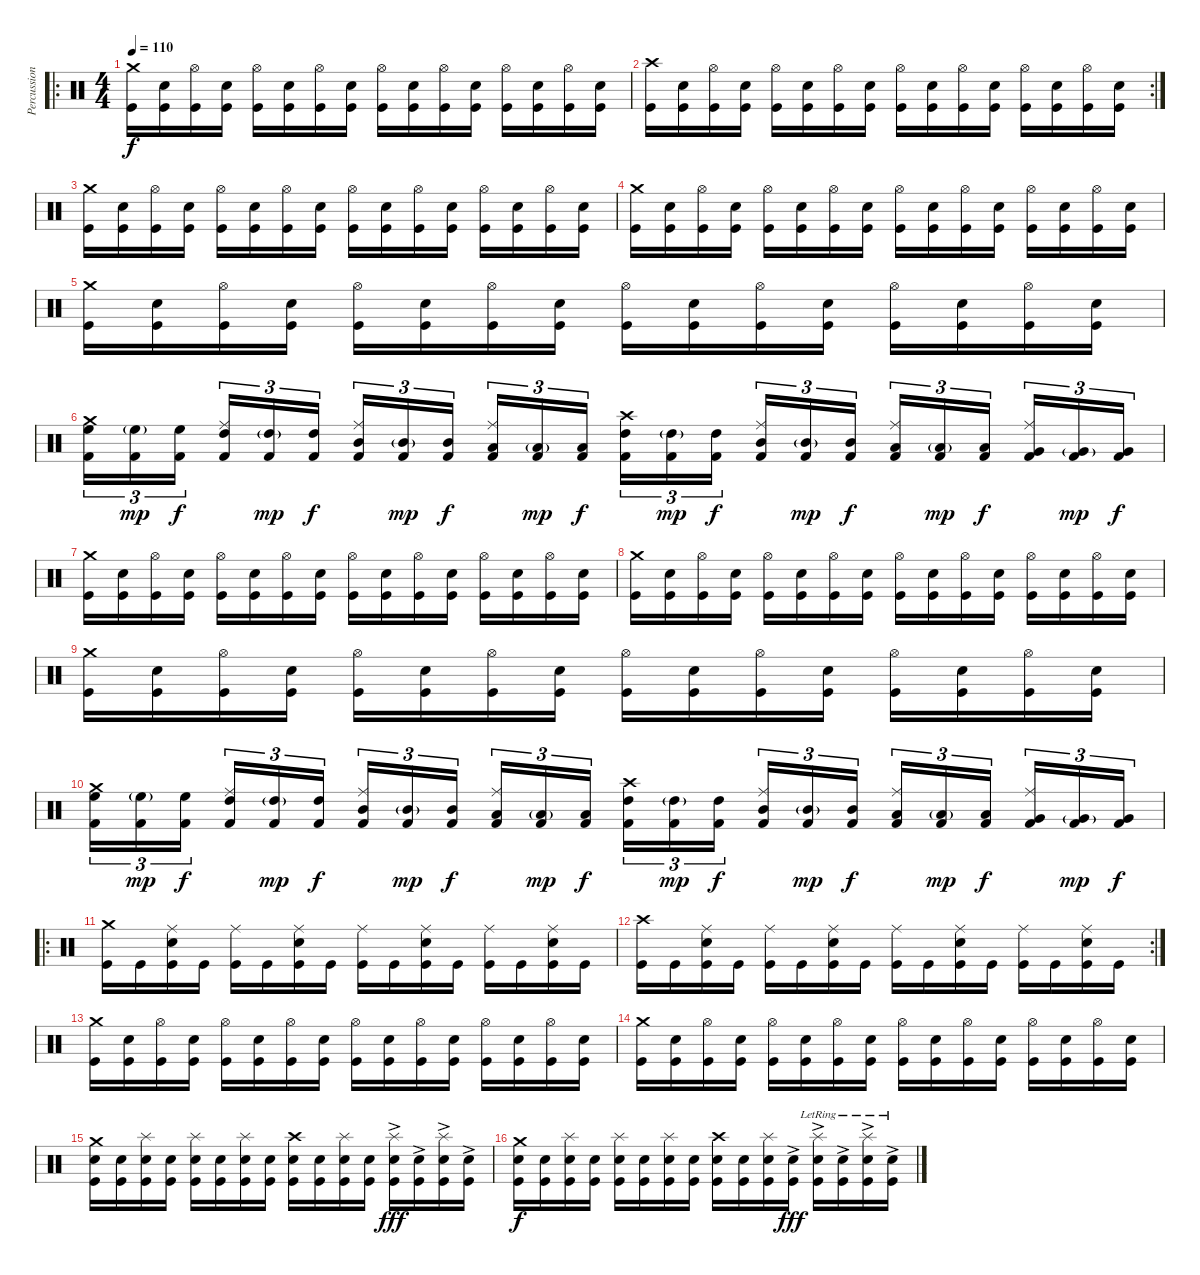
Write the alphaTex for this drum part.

\track ("Percussion" "Percussion") {instrument percussion}
\staff {score}
\articulation defaults
\ro
\ts (4 4)
\tempo 110
\clef neutral
\ks c
("Crash medium (hit)" "Kick (hit)").16{dy f} ("Electric Snare (hit)" "Kick (hit)").16 ("Hi-Hat (open)" "Kick (hit)").16 ("Electric Snare (hit)" "Kick (hit)").16 ("Hi-Hat (open)" "Kick (hit)").16 ("Electric Snare (hit)" "Kick (hit)").16 ("Hi-Hat (open)" "Kick (hit)").16 ("Electric Snare (hit)" "Kick (hit)").16 ("Hi-Hat (open)" "Kick (hit)").16 ("Electric Snare (hit)" "Kick (hit)").16 ("Hi-Hat (open)" "Kick (hit)").16 ("Electric Snare (hit)" "Kick (hit)").16 ("Hi-Hat (open)" "Kick (hit)").16 ("Electric Snare (hit)" "Kick (hit)").16 ("Hi-Hat (open)" "Kick (hit)").16 ("Electric Snare (hit)" "Kick (hit)").16 |
\rc 2
("Crash high (hit)" "Kick (hit)").16 ("Electric Snare (hit)" "Kick (hit)").16 ("Hi-Hat (open)" "Kick (hit)").16 ("Electric Snare (hit)" "Kick (hit)").16 ("Hi-Hat (open)" "Kick (hit)").16 ("Electric Snare (hit)" "Kick (hit)").16 ("Hi-Hat (open)" "Kick (hit)").16 ("Electric Snare (hit)" "Kick (hit)").16 ("Hi-Hat (open)" "Kick (hit)").16 ("Electric Snare (hit)" "Kick (hit)").16 ("Hi-Hat (open)" "Kick (hit)").16 ("Electric Snare (hit)" "Kick (hit)").16 ("Hi-Hat (open)" "Kick (hit)").16 ("Electric Snare (hit)" "Kick (hit)").16 ("Hi-Hat (open)" "Kick (hit)").16 ("Electric Snare (hit)" "Kick (hit)").16 |
("Crash medium (hit)" "Kick (hit)").16 ("Electric Snare (hit)" "Kick (hit)").16 ("Hi-Hat (open)" "Kick (hit)").16 ("Electric Snare (hit)" "Kick (hit)").16 ("Hi-Hat (open)" "Kick (hit)").16 ("Electric Snare (hit)" "Kick (hit)").16 ("Hi-Hat (open)" "Kick (hit)").16 ("Electric Snare (hit)" "Kick (hit)").16 ("Hi-Hat (open)" "Kick (hit)").16 ("Electric Snare (hit)" "Kick (hit)").16 ("Hi-Hat (open)" "Kick (hit)").16 ("Electric Snare (hit)" "Kick (hit)").16 ("Hi-Hat (open)" "Kick (hit)").16 ("Electric Snare (hit)" "Kick (hit)").16 ("Hi-Hat (open)" "Kick (hit)").16 ("Electric Snare (hit)" "Kick (hit)").16 |
("Crash medium (hit)" "Kick (hit)").16 ("Electric Snare (hit)" "Kick (hit)").16 ("Hi-Hat (open)" "Kick (hit)").16 ("Electric Snare (hit)" "Kick (hit)").16 ("Hi-Hat (open)" "Kick (hit)").16 ("Electric Snare (hit)" "Kick (hit)").16 ("Hi-Hat (open)" "Kick (hit)").16 ("Electric Snare (hit)" "Kick (hit)").16 ("Hi-Hat (open)" "Kick (hit)").16 ("Electric Snare (hit)" "Kick (hit)").16 ("Hi-Hat (open)" "Kick (hit)").16 ("Electric Snare (hit)" "Kick (hit)").16 ("Hi-Hat (open)" "Kick (hit)").16 ("Electric Snare (hit)" "Kick (hit)").16 ("Hi-Hat (open)" "Kick (hit)").16 ("Electric Snare (hit)" "Kick (hit)").16 |
("Crash medium (hit)" "Kick (hit)").16 ("Electric Snare (hit)" "Kick (hit)").16 ("Hi-Hat (open)" "Kick (hit)").16 ("Electric Snare (hit)" "Kick (hit)").16 ("Hi-Hat (open)" "Kick (hit)").16 ("Electric Snare (hit)" "Kick (hit)").16 ("Hi-Hat (open)" "Kick (hit)").16 ("Electric Snare (hit)" "Kick (hit)").16 ("Hi-Hat (open)" "Kick (hit)").16 ("Electric Snare (hit)" "Kick (hit)").16 ("Hi-Hat (open)" "Kick (hit)").16 ("Electric Snare (hit)" "Kick (hit)").16 ("Hi-Hat (open)" "Kick (hit)").16 ("Electric Snare (hit)" "Kick (hit)").16 ("Hi-Hat (open)" "Kick (hit)").16 ("Electric Snare (hit)" "Kick (hit)").16 |
("Crash medium (hit)" "High Floor Tom (hit)" "Kick (hit) 2").16{tu (3 2)} ("High Floor Tom (hit)"{g} "Kick (hit) 2").16{tu (3 2) dy mp} ("High Floor Tom (hit)" "Kick (hit) 2").16{tu (3 2) dy f} ("Ride (middle)" "High Tom (hit)" "Kick (hit) 2").16{tu (3 2)} ("High Tom (hit)"{g} "Kick (hit) 2").16{tu (3 2) dy mp} ("High Tom (hit)" "Kick (hit) 2").16{tu (3 2) dy f} ("Ride (middle)" "Mid Tom (hit)" "Kick (hit) 2").16{tu (3 2)} ("Mid Tom (hit)"{g} "Kick (hit) 2").16{tu (3 2) dy mp} ("Mid Tom (hit)" "Kick (hit) 2").16{tu (3 2) dy f} ("Ride (middle)" "Low Tom (hit)" "Kick (hit) 2").16{tu (3 2)} ("Low Tom (hit)"{g} "Kick (hit) 2").16{tu (3 2) dy mp} ("Low Tom (hit)" "Kick (hit) 2").16{tu (3 2) dy f} ("Crash high (hit)" "High Tom (hit)" "Kick (hit) 2").16{tu (3 2)} ("High Tom (hit)"{g} "Kick (hit) 2").16{tu (3 2) dy mp} ("High Tom (hit)" "Kick (hit) 2").16{tu (3 2) dy f} ("Ride (middle)" "Mid Tom (hit)" "Kick (hit) 2").16{tu (3 2)} ("Mid Tom (hit)"{g} "Kick (hit) 2").16{tu (3 2) dy mp} ("Mid Tom (hit)" "Kick (hit) 2").16{tu (3 2) dy f} ("Ride (middle)" "Low Tom (hit)" "Kick (hit) 2").16{tu (3 2)} ("Low Tom (hit)"{g} "Kick (hit) 2").16{tu (3 2) dy mp} ("Low Tom (hit)" "Kick (hit) 2").16{tu (3 2) dy f} ("Ride (middle)" "Very Low Tom (hit)" "Kick (hit) 2").16{tu (3 2)} ("Very Low Tom (hit)"{g} "Kick (hit) 2").16{tu (3 2) dy mp} ("Very Low Tom (hit)" "Kick (hit) 2").16{tu (3 2) dy f} |
("Crash medium (hit)" "Kick (hit)").16 ("Electric Snare (hit)" "Kick (hit)").16 ("Hi-Hat (open)" "Kick (hit)").16 ("Electric Snare (hit)" "Kick (hit)").16 ("Hi-Hat (open)" "Kick (hit)").16 ("Electric Snare (hit)" "Kick (hit)").16 ("Hi-Hat (open)" "Kick (hit)").16 ("Electric Snare (hit)" "Kick (hit)").16 ("Hi-Hat (open)" "Kick (hit)").16 ("Electric Snare (hit)" "Kick (hit)").16 ("Hi-Hat (open)" "Kick (hit)").16 ("Electric Snare (hit)" "Kick (hit)").16 ("Hi-Hat (open)" "Kick (hit)").16 ("Electric Snare (hit)" "Kick (hit)").16 ("Hi-Hat (open)" "Kick (hit)").16 ("Electric Snare (hit)" "Kick (hit)").16 |
("Crash medium (hit)" "Kick (hit)").16 ("Electric Snare (hit)" "Kick (hit)").16 ("Hi-Hat (open)" "Kick (hit)").16 ("Electric Snare (hit)" "Kick (hit)").16 ("Hi-Hat (open)" "Kick (hit)").16 ("Electric Snare (hit)" "Kick (hit)").16 ("Hi-Hat (open)" "Kick (hit)").16 ("Electric Snare (hit)" "Kick (hit)").16 ("Hi-Hat (open)" "Kick (hit)").16 ("Electric Snare (hit)" "Kick (hit)").16 ("Hi-Hat (open)" "Kick (hit)").16 ("Electric Snare (hit)" "Kick (hit)").16 ("Hi-Hat (open)" "Kick (hit)").16 ("Electric Snare (hit)" "Kick (hit)").16 ("Hi-Hat (open)" "Kick (hit)").16 ("Electric Snare (hit)" "Kick (hit)").16 |
("Crash medium (hit)" "Kick (hit)").16 ("Electric Snare (hit)" "Kick (hit)").16 ("Hi-Hat (open)" "Kick (hit)").16 ("Electric Snare (hit)" "Kick (hit)").16 ("Hi-Hat (open)" "Kick (hit)").16 ("Electric Snare (hit)" "Kick (hit)").16 ("Hi-Hat (open)" "Kick (hit)").16 ("Electric Snare (hit)" "Kick (hit)").16 ("Hi-Hat (open)" "Kick (hit)").16 ("Electric Snare (hit)" "Kick (hit)").16 ("Hi-Hat (open)" "Kick (hit)").16 ("Electric Snare (hit)" "Kick (hit)").16 ("Hi-Hat (open)" "Kick (hit)").16 ("Electric Snare (hit)" "Kick (hit)").16 ("Hi-Hat (open)" "Kick (hit)").16 ("Electric Snare (hit)" "Kick (hit)").16 |
("Crash medium (hit)" "High Floor Tom (hit)" "Kick (hit) 2").16{tu (3 2)} ("High Floor Tom (hit)"{g} "Kick (hit) 2").16{tu (3 2) dy mp} ("High Floor Tom (hit)" "Kick (hit) 2").16{tu (3 2) dy f} ("Ride (middle)" "High Tom (hit)" "Kick (hit) 2").16{tu (3 2)} ("High Tom (hit)"{g} "Kick (hit) 2").16{tu (3 2) dy mp} ("High Tom (hit)" "Kick (hit) 2").16{tu (3 2) dy f} ("Ride (middle)" "Mid Tom (hit)" "Kick (hit) 2").16{tu (3 2)} ("Mid Tom (hit)"{g} "Kick (hit) 2").16{tu (3 2) dy mp} ("Mid Tom (hit)" "Kick (hit) 2").16{tu (3 2) dy f} ("Ride (middle)" "Low Tom (hit)" "Kick (hit) 2").16{tu (3 2)} ("Low Tom (hit)"{g} "Kick (hit) 2").16{tu (3 2) dy mp} ("Low Tom (hit)" "Kick (hit) 2").16{tu (3 2) dy f} ("Crash high (hit)" "High Tom (hit)" "Kick (hit) 2").16{tu (3 2)} ("High Tom (hit)"{g} "Kick (hit) 2").16{tu (3 2) dy mp} ("High Tom (hit)" "Kick (hit) 2").16{tu (3 2) dy f} ("Ride (middle)" "Mid Tom (hit)" "Kick (hit) 2").16{tu (3 2)} ("Mid Tom (hit)"{g} "Kick (hit) 2").16{tu (3 2) dy mp} ("Mid Tom (hit)" "Kick (hit) 2").16{tu (3 2) dy f} ("Ride (middle)" "Low Tom (hit)" "Kick (hit) 2").16{tu (3 2)} ("Low Tom (hit)"{g} "Kick (hit) 2").16{tu (3 2) dy mp} ("Low Tom (hit)" "Kick (hit) 2").16{tu (3 2) dy f} ("Ride (middle)" "Very Low Tom (hit)" "Kick (hit) 2").16{tu (3 2)} ("Very Low Tom (hit)"{g} "Kick (hit) 2").16{tu (3 2) dy mp} ("Very Low Tom (hit)" "Kick (hit) 2").16{tu (3 2) dy f} |
\ro
("Crash medium (hit)" "Kick (hit)").16 "Kick (hit)".16 ("Ride (middle)" "Electric Snare (hit)" "Kick (hit)").16 "Kick (hit)".16 ("Ride (middle)" "Kick (hit)").16 "Kick (hit)".16 ("Ride (middle)" "Electric Snare (hit)" "Kick (hit)").16 "Kick (hit)".16 ("Ride (middle)" "Kick (hit)").16 "Kick (hit)".16 ("Ride (middle)" "Electric Snare (hit)" "Kick (hit)").16 "Kick (hit)".16 ("Ride (middle)" "Kick (hit)").16 "Kick (hit)".16 ("Ride (middle)" "Electric Snare (hit)" "Kick (hit)").16 "Kick (hit)".16 |
\rc 2
("Crash high (hit)" "Kick (hit)").16 "Kick (hit)".16 ("Ride (middle)" "Electric Snare (hit)" "Kick (hit)").16 "Kick (hit)".16 ("Ride (middle)" "Kick (hit)").16 "Kick (hit)".16 ("Ride (middle)" "Electric Snare (hit)" "Kick (hit)").16 "Kick (hit)".16 ("Ride (middle)" "Kick (hit)").16 "Kick (hit)".16 ("Ride (middle)" "Electric Snare (hit)" "Kick (hit)").16 "Kick (hit)".16 ("Ride (middle)" "Kick (hit)").16 "Kick (hit)".16 ("Ride (middle)" "Electric Snare (hit)" "Kick (hit)").16 "Kick (hit)".16 |
("Crash medium (hit)" "Kick (hit)").16 ("Electric Snare (hit)" "Kick (hit)").16 ("Hi-Hat (open)" "Kick (hit)").16 ("Electric Snare (hit)" "Kick (hit)").16 ("Hi-Hat (open)" "Kick (hit)").16 ("Electric Snare (hit)" "Kick (hit)").16 ("Hi-Hat (open)" "Kick (hit)").16 ("Electric Snare (hit)" "Kick (hit)").16 ("Hi-Hat (open)" "Kick (hit)").16 ("Electric Snare (hit)" "Kick (hit)").16 ("Hi-Hat (open)" "Kick (hit)").16 ("Electric Snare (hit)" "Kick (hit)").16 ("Hi-Hat (open)" "Kick (hit)").16 ("Electric Snare (hit)" "Kick (hit)").16 ("Hi-Hat (open)" "Kick (hit)").16 ("Electric Snare (hit)" "Kick (hit)").16 |
("Crash medium (hit)" "Kick (hit)").16 ("Electric Snare (hit)" "Kick (hit)").16 ("Hi-Hat (open)" "Kick (hit)").16 ("Electric Snare (hit)" "Kick (hit)").16 ("Hi-Hat (open)" "Kick (hit)").16 ("Electric Snare (hit)" "Kick (hit)").16 ("Hi-Hat (open)" "Kick (hit)").16 ("Electric Snare (hit)" "Kick (hit)").16 ("Hi-Hat (open)" "Kick (hit)").16 ("Electric Snare (hit)" "Kick (hit)").16 ("Hi-Hat (open)" "Kick (hit)").16 ("Electric Snare (hit)" "Kick (hit)").16 ("Hi-Hat (open)" "Kick (hit)").16 ("Electric Snare (hit)" "Kick (hit)").16 ("Hi-Hat (open)" "Kick (hit)").16 ("Electric Snare (hit)" "Kick (hit)").16 |
("Crash medium (hit)" "Electric Snare (hit)" "Kick (hit)").16 ("Electric Snare (hit)" "Kick (hit)").16 ("Splash (hit)" "Electric Snare (hit)" "Kick (hit)").16 ("Electric Snare (hit)" "Kick (hit)").16 ("Splash (hit)" "Electric Snare (hit)" "Kick (hit)").16 ("Electric Snare (hit)" "Kick (hit)").16 ("Splash (hit)" "Electric Snare (hit)" "Kick (hit)").16 ("Electric Snare (hit)" "Kick (hit)").16 ("Crash high (hit)" "Electric Snare (hit)" "Kick (hit)").16 ("Electric Snare (hit)" "Kick (hit)").16 ("Splash (hit)" "Electric Snare (hit)" "Kick (hit)").16 ("Electric Snare (hit)" "Kick (hit)").16 ("Splash (hit)" "Electric Snare (hit)"{ac} "Kick (hit)").16{dy fff} ("Electric Snare (hit)"{ac} "Kick (hit)").16 ("Splash (hit)" "Electric Snare (hit)"{ac} "Kick (hit)").16 ("Electric Snare (hit)"{ac} "Kick (hit)").16 |
("Crash medium (hit)" "Electric Snare (hit)" "Kick (hit)").16{dy f} ("Electric Snare (hit)" "Kick (hit)").16 ("Splash (hit)" "Electric Snare (hit)" "Kick (hit)").16 ("Electric Snare (hit)" "Kick (hit)").16 ("Splash (hit)" "Electric Snare (hit)" "Kick (hit)").16 ("Electric Snare (hit)" "Kick (hit)").16 ("Splash (hit)" "Electric Snare (hit)" "Kick (hit)").16 ("Electric Snare (hit)" "Kick (hit)").16 ("Crash high (hit)" "Electric Snare (hit)" "Kick (hit)").16 ("Electric Snare (hit)" "Kick (hit)").16 ("Splash (hit)" "Electric Snare (hit)" "Kick (hit)").16 ("Electric Snare (hit)"{ac} "Kick (hit)").16{dy fff} ("Splash (hit)" "Electric Snare (hit)"{ac lr} "Kick (hit)").16 ("Electric Snare (hit)"{ac lr} "Kick (hit)").16 ("Splash (hit)" "Electric Snare (hit)"{ac lr} "Kick (hit)").16 ("Electric Snare (hit)"{ac lr} "Kick (hit)").16
